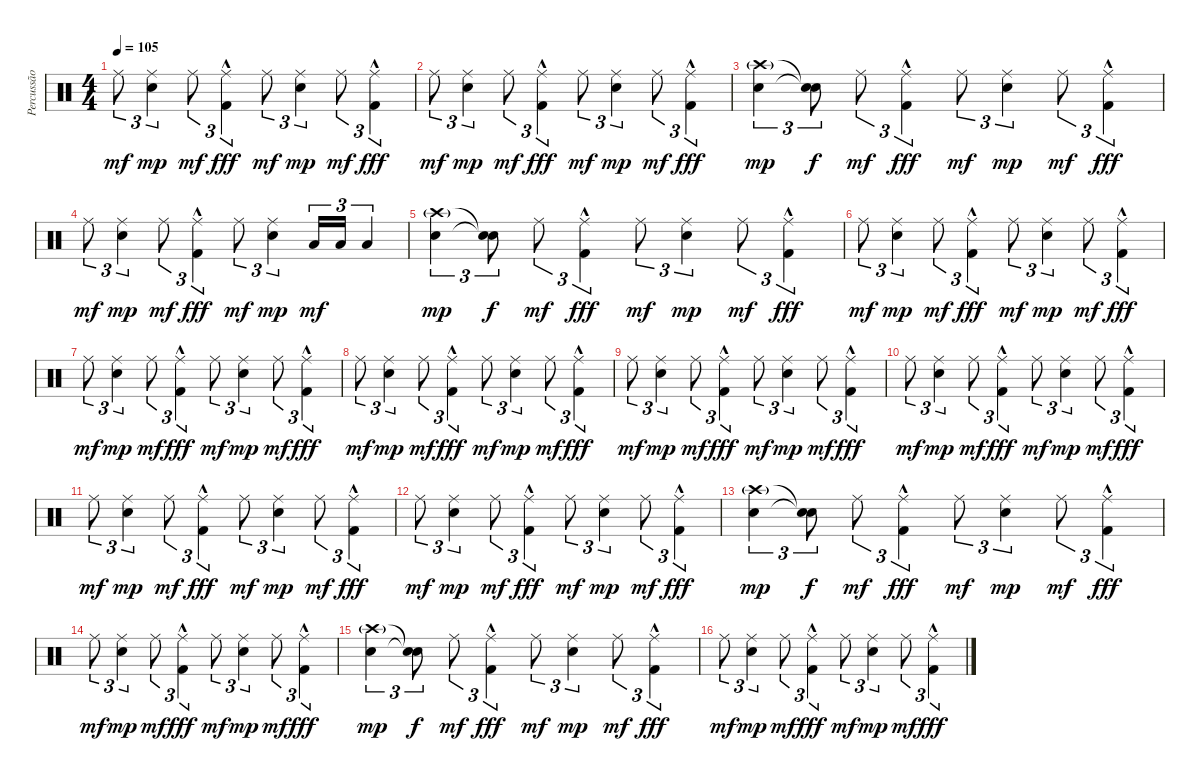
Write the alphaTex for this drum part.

\track ("Percussão" "Percussão") {instrument percussion}
\staff {score}
\articulation defaults
\ts (4 4)
\tempo 105
\clef neutral
\ks c "Ride (middle)".8{tu (3 2) dy mf}
("Ride (middle)" "Electric Snare (hit)").4{tu (3 2) dy mp} "Ride (middle)".8{tu (3 2) dy mf} ("Ride (middle)" "Kick (hit) 2"{hac}).4{tu (3 2) dy fff} "Ride (middle)".8{tu (3 2) dy mf} ("Ride (middle)" "Electric Snare (hit)").4{tu (3 2) dy mp} "Ride (middle)".8{tu (3 2) dy mf} ("Ride (middle)" "Kick (hit) 2"{hac}).4{tu (3 2) dy fff} |
"Ride (middle)".8{tu (3 2) dy mf} ("Ride (middle)" "Electric Snare (hit)").4{tu (3 2) dy mp} "Ride (middle)".8{tu (3 2) dy mf} ("Ride (middle)" "Kick (hit) 2"{hac}).4{tu (3 2) dy fff} "Ride (middle)".8{tu (3 2) dy mf} ("Ride (middle)" "Electric Snare (hit)").4{tu (3 2) dy mp} "Ride (middle)".8{tu (3 2) dy mf} ("Ride (middle)" "Kick (hit) 2"{hac}).4{tu (3 2) dy fff} |
("Crash high (hit)"{g} "Electric Snare (hit)").4{tu (3 2) dy mp} ("Snare (hit)"{t} "Snare (hit)"{t}).8{tu (3 2) dy f} "Ride (middle)".8{tu (3 2) dy mf} ("Ride (middle)" "Kick (hit) 2"{hac}).4{tu (3 2) dy fff} "Ride (middle)".8{tu (3 2) dy mf} ("Ride (middle)" "Electric Snare (hit)").4{tu (3 2) dy mp} "Ride (middle)".8{tu (3 2) dy mf} ("Ride (middle)" "Kick (hit) 2"{hac}).4{tu (3 2) dy fff} |
"Ride (middle)".8{tu (3 2) dy mf} ("Ride (middle)" "Electric Snare (hit)").4{tu (3 2) dy mp} "Ride (middle)".8{tu (3 2) dy mf} ("Ride (middle)" "Kick (hit) 2"{hac}).4{tu (3 2) dy fff} "Ride (middle)".8{tu (3 2) dy mf} ("Ride (middle)" "Electric Snare (hit)").4{tu (3 2) dy mp} "Low Floor Tom (hit)".16{tu (3 2) dy mf} "Low Floor Tom (hit)".16{tu (3 2)} "Low Floor Tom (hit)".4{tu (3 2)} |
("Crash high (hit)"{g} "Electric Snare (hit)").4{tu (3 2) dy mp} ("Snare (hit)"{t} "Snare (hit)"{t}).8{tu (3 2) dy f} "Ride (middle)".8{tu (3 2) dy mf} ("Ride (middle)" "Kick (hit) 2"{hac}).4{tu (3 2) dy fff} "Ride (middle)".8{tu (3 2) dy mf} ("Ride (middle)" "Electric Snare (hit)").4{tu (3 2) dy mp} "Ride (middle)".8{tu (3 2) dy mf} ("Ride (middle)" "Kick (hit) 2"{hac}).4{tu (3 2) dy fff} |
"Ride (middle)".8{tu (3 2) dy mf} ("Ride (middle)" "Electric Snare (hit)").4{tu (3 2) dy mp} "Ride (middle)".8{tu (3 2) dy mf} ("Ride (middle)" "Kick (hit) 2"{hac}).4{tu (3 2) dy fff} "Ride (middle)".8{tu (3 2) dy mf} ("Ride (middle)" "Electric Snare (hit)").4{tu (3 2) dy mp} "Ride (middle)".8{tu (3 2) dy mf} ("Ride (middle)" "Kick (hit) 2"{hac}).4{tu (3 2) dy fff} |
"Ride (middle)".8{tu (3 2) dy mf} ("Ride (middle)" "Electric Snare (hit)").4{tu (3 2) dy mp} "Ride (middle)".8{tu (3 2) dy mf} ("Ride (middle)" "Kick (hit) 2"{hac}).4{tu (3 2) dy fff} "Ride (middle)".8{tu (3 2) dy mf} ("Ride (middle)" "Electric Snare (hit)").4{tu (3 2) dy mp} "Ride (middle)".8{tu (3 2) dy mf} ("Ride (middle)" "Kick (hit) 2"{hac}).4{tu (3 2) dy fff} |
"Ride (middle)".8{tu (3 2) dy mf} ("Ride (middle)" "Electric Snare (hit)").4{tu (3 2) dy mp} "Ride (middle)".8{tu (3 2) dy mf} ("Ride (middle)" "Kick (hit) 2"{hac}).4{tu (3 2) dy fff} "Ride (middle)".8{tu (3 2) dy mf} ("Ride (middle)" "Electric Snare (hit)").4{tu (3 2) dy mp} "Ride (middle)".8{tu (3 2) dy mf} ("Ride (middle)" "Kick (hit) 2"{hac}).4{tu (3 2) dy fff} |
"Ride (middle)".8{tu (3 2) dy mf} ("Ride (middle)" "Electric Snare (hit)").4{tu (3 2) dy mp} "Ride (middle)".8{tu (3 2) dy mf} ("Ride (middle)" "Kick (hit) 2"{hac}).4{tu (3 2) dy fff} "Ride (middle)".8{tu (3 2) dy mf} ("Ride (middle)" "Electric Snare (hit)").4{tu (3 2) dy mp} "Ride (middle)".8{tu (3 2) dy mf} ("Ride (middle)" "Kick (hit) 2"{hac}).4{tu (3 2) dy fff} |
"Ride (middle)".8{tu (3 2) dy mf} ("Ride (middle)" "Electric Snare (hit)").4{tu (3 2) dy mp} "Ride (middle)".8{tu (3 2) dy mf} ("Ride (middle)" "Kick (hit) 2"{hac}).4{tu (3 2) dy fff} "Ride (middle)".8{tu (3 2) dy mf} ("Ride (middle)" "Electric Snare (hit)").4{tu (3 2) dy mp} "Ride (middle)".8{tu (3 2) dy mf} ("Ride (middle)" "Kick (hit) 2"{hac}).4{tu (3 2) dy fff} |
"Ride (middle)".8{tu (3 2) dy mf} ("Ride (middle)" "Electric Snare (hit)").4{tu (3 2) dy mp} "Ride (middle)".8{tu (3 2) dy mf} ("Ride (middle)" "Kick (hit) 2"{hac}).4{tu (3 2) dy fff} "Ride (middle)".8{tu (3 2) dy mf} ("Ride (middle)" "Electric Snare (hit)").4{tu (3 2) dy mp} "Ride (middle)".8{tu (3 2) dy mf} ("Ride (middle)" "Kick (hit) 2"{hac}).4{tu (3 2) dy fff} |
"Ride (middle)".8{tu (3 2) dy mf} ("Ride (middle)" "Electric Snare (hit)").4{tu (3 2) dy mp} "Ride (middle)".8{tu (3 2) dy mf} ("Ride (middle)" "Kick (hit) 2"{hac}).4{tu (3 2) dy fff} "Ride (middle)".8{tu (3 2) dy mf} ("Ride (middle)" "Electric Snare (hit)").4{tu (3 2) dy mp} "Ride (middle)".8{tu (3 2) dy mf} ("Ride (middle)" "Kick (hit) 2"{hac}).4{tu (3 2) dy fff} |
("Crash high (hit)"{g} "Electric Snare (hit)").4{tu (3 2) dy mp} ("Snare (hit)"{t} "Snare (hit)"{t}).8{tu (3 2) dy f} "Ride (middle)".8{tu (3 2) dy mf} ("Ride (middle)" "Kick (hit) 2"{hac}).4{tu (3 2) dy fff} "Ride (middle)".8{tu (3 2) dy mf} ("Ride (middle)" "Electric Snare (hit)").4{tu (3 2) dy mp} "Ride (middle)".8{tu (3 2) dy mf} ("Ride (middle)" "Kick (hit) 2"{hac}).4{tu (3 2) dy fff} |
"Ride (middle)".8{tu (3 2) dy mf} ("Ride (middle)" "Electric Snare (hit)").4{tu (3 2) dy mp} "Ride (middle)".8{tu (3 2) dy mf} ("Ride (middle)" "Kick (hit) 2"{hac}).4{tu (3 2) dy fff} "Ride (middle)".8{tu (3 2) dy mf} ("Ride (middle)" "Electric Snare (hit)").4{tu (3 2) dy mp} "Ride (middle)".8{tu (3 2) dy mf} ("Ride (middle)" "Kick (hit) 2"{hac}).4{tu (3 2) dy fff} |
("Crash high (hit)"{g} "Electric Snare (hit)").4{tu (3 2) dy mp} ("Snare (hit)"{t} "Snare (hit)"{t}).8{tu (3 2) dy f} "Ride (middle)".8{tu (3 2) dy mf} ("Ride (middle)" "Kick (hit) 2"{hac}).4{tu (3 2) dy fff} "Ride (middle)".8{tu (3 2) dy mf} ("Ride (middle)" "Electric Snare (hit)").4{tu (3 2) dy mp} "Ride (middle)".8{tu (3 2) dy mf} ("Ride (middle)" "Kick (hit) 2"{hac}).4{tu (3 2) dy fff} |
"Ride (middle)".8{tu (3 2) dy mf} ("Ride (middle)" "Electric Snare (hit)").4{tu (3 2) dy mp} "Ride (middle)".8{tu (3 2) dy mf} ("Ride (middle)" "Kick (hit) 2"{hac}).4{tu (3 2) dy fff} "Ride (middle)".8{tu (3 2) dy mf} ("Ride (middle)" "Electric Snare (hit)").4{tu (3 2) dy mp} "Ride (middle)".8{tu (3 2) dy mf} ("Ride (middle)" "Kick (hit) 2"{hac}).4{tu (3 2) dy fff}
